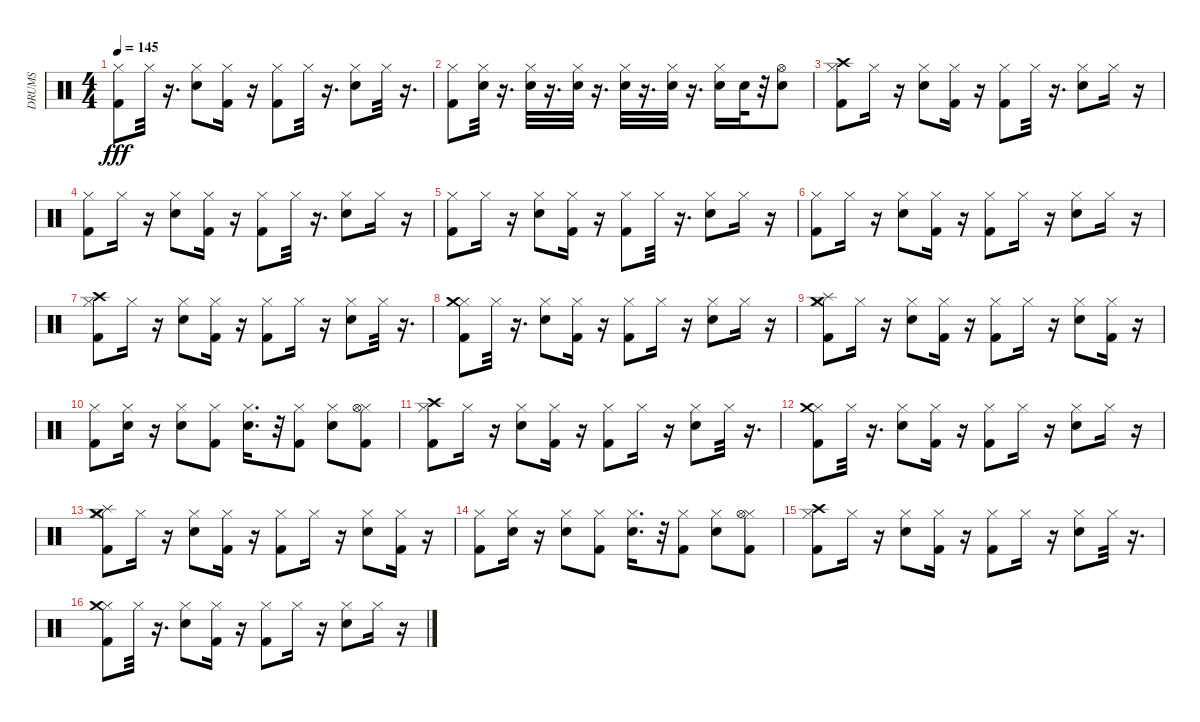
\track ("DRUMS" "DRUMS") {instrument percussion}
\staff {score}
\articulation defaults
\ts (4 4)
\tempo 145
\clef neutral
\ks c
("Kick (hit) 2" "Hi-Hat (closed)").8{dy fff} "Hi-Hat (closed)".32 r.16{d} ("Electric Snare (hit)" "Hi-Hat (closed)").8 ("Kick (hit) 2" "Hi-Hat (closed)").16 r.16 ("Kick (hit) 2" "Hi-Hat (closed)").8 "Hi-Hat (closed)".32 r.16{d} ("Electric Snare (hit)" "Hi-Hat (closed)").8 "Hi-Hat (closed)".32 r.16{d} |
("Kick (hit) 2" "Hi-Hat (closed)").8 ("Electric Snare (hit)" "Hi-Hat (closed)").32 r.16{d} ("Electric Snare (hit)" "Hi-Hat (closed)").32 r.16{d} ("Electric Snare (hit)" "Hi-Hat (closed)").32 r.16{d} ("Electric Snare (hit)" "Hi-Hat (closed)").32 r.16{d} ("Electric Snare (hit)" "Hi-Hat (closed)").32 r.16{d} ("Electric Snare (hit)" "Hi-Hat (closed)").16 "Electric Snare (hit)".32 r.32 ("Electric Snare (hit)" "Hi-Hat (open)").8 |
("Kick (hit) 2" "Hi-Hat (closed)" "Crash high (hit)").8 "Hi-Hat (closed)".16 r.16 ("Electric Snare (hit)" "Hi-Hat (closed)").8 ("Kick (hit) 2" "Hi-Hat (closed)").16 r.16 ("Kick (hit) 2" "Hi-Hat (closed)").8 "Hi-Hat (closed)".32 r.16{d} ("Electric Snare (hit)" "Hi-Hat (closed)").8 "Hi-Hat (closed)".16 r.16 |
("Kick (hit) 2" "Hi-Hat (closed)").8 "Hi-Hat (closed)".16 r.16 ("Electric Snare (hit)" "Hi-Hat (closed)").8 ("Kick (hit) 2" "Hi-Hat (closed)").16 r.16 ("Kick (hit) 2" "Hi-Hat (closed)").8 "Hi-Hat (closed)".32 r.16{d} ("Electric Snare (hit)" "Hi-Hat (closed)").8 "Hi-Hat (closed)".16 r.16 |
("Kick (hit) 2" "Hi-Hat (closed)").8 "Hi-Hat (closed)".16 r.16 ("Electric Snare (hit)" "Hi-Hat (closed)").8 ("Kick (hit) 2" "Hi-Hat (closed)").16 r.16 ("Kick (hit) 2" "Hi-Hat (closed)").8 "Hi-Hat (closed)".32 r.16{d} ("Electric Snare (hit)" "Hi-Hat (closed)").8 "Hi-Hat (closed)".16 r.16 |
("Kick (hit) 2" "Hi-Hat (closed)").8 "Hi-Hat (closed)".16 r.16 ("Electric Snare (hit)" "Hi-Hat (closed)").8 ("Kick (hit) 2" "Hi-Hat (closed)").16 r.16 ("Kick (hit) 2" "Hi-Hat (closed)").8 "Hi-Hat (closed)".16 r.16 ("Electric Snare (hit)" "Hi-Hat (closed)").8 "Hi-Hat (closed)".16 r.16 |
("Kick (hit) 2" "Hi-Hat (closed)" "Crash high (hit)").8 "Hi-Hat (closed)".16 r.16 ("Electric Snare (hit)" "Hi-Hat (closed)").8 ("Kick (hit) 2" "Hi-Hat (closed)").16 r.16 ("Kick (hit) 2" "Hi-Hat (closed)").8 "Hi-Hat (closed)".16 r.16 ("Electric Snare (hit)" "Hi-Hat (closed)").8 "Hi-Hat (closed)".32 r.16{d} |
("Kick (hit) 2" "Hi-Hat (closed)" "Crash medium (hit)").8 "Hi-Hat (closed)".32 r.16{d} ("Electric Snare (hit)" "Hi-Hat (closed)").8 ("Kick (hit) 2" "Hi-Hat (closed)").16 r.16 ("Kick (hit) 2" "Hi-Hat (closed)").8 "Hi-Hat (closed)".16 r.16 ("Electric Snare (hit)" "Hi-Hat (closed)").8 "Hi-Hat (closed)".16 r.16 |
("Kick (hit) 2" "Hi-Hat (closed)" "Splash (hit)" "Crash medium (hit)").8 "Hi-Hat (closed)".16 r.16 ("Electric Snare (hit)" "Hi-Hat (closed)").8 ("Kick (hit) 2" "Hi-Hat (closed)").16 r.16 ("Kick (hit) 2" "Hi-Hat (closed)").8 "Hi-Hat (closed)".16 r.16 ("Electric Snare (hit)" "Hi-Hat (closed)").8 ("Kick (hit) 2" "Hi-Hat (closed)").16 r.16 |
("Kick (hit) 2" "Hi-Hat (closed)").8 ("Electric Snare (hit)" "Hi-Hat (closed)").16 r.16 ("Electric Snare (hit)" "Hi-Hat (closed)").8 ("Kick (hit) 2" "Hi-Hat (closed)").8 ("Electric Snare (hit)" "Hi-Hat (closed)").16{d} r.32 ("Kick (hit) 2" "Hi-Hat (closed)").8 ("Electric Snare (hit)" "Hi-Hat (closed)").8 ("Kick (hit) 2" "Hi-Hat (closed)" "Hi-Hat (open)").8 |
("Kick (hit) 2" "Hi-Hat (closed)" "Crash high (hit)").8 "Hi-Hat (closed)".16 r.16 ("Electric Snare (hit)" "Hi-Hat (closed)").8 ("Kick (hit) 2" "Hi-Hat (closed)").16 r.16 ("Kick (hit) 2" "Hi-Hat (closed)").8 "Hi-Hat (closed)".16 r.16 ("Electric Snare (hit)" "Hi-Hat (closed)").8 "Hi-Hat (closed)".32 r.16{d} |
("Kick (hit) 2" "Hi-Hat (closed)" "Crash medium (hit)").8 "Hi-Hat (closed)".32 r.16{d} ("Electric Snare (hit)" "Hi-Hat (closed)").8 ("Kick (hit) 2" "Hi-Hat (closed)").16 r.16 ("Kick (hit) 2" "Hi-Hat (closed)").8 "Hi-Hat (closed)".16 r.16 ("Electric Snare (hit)" "Hi-Hat (closed)").8 "Hi-Hat (closed)".16 r.16 |
("Kick (hit) 2" "Hi-Hat (closed)" "Splash (hit)" "Crash medium (hit)").8 "Hi-Hat (closed)".16 r.16 ("Electric Snare (hit)" "Hi-Hat (closed)").8 ("Kick (hit) 2" "Hi-Hat (closed)").16 r.16 ("Kick (hit) 2" "Hi-Hat (closed)").8 "Hi-Hat (closed)".16 r.16 ("Electric Snare (hit)" "Hi-Hat (closed)").8 ("Kick (hit) 2" "Hi-Hat (closed)").16 r.16 |
("Kick (hit) 2" "Hi-Hat (closed)").8 ("Electric Snare (hit)" "Hi-Hat (closed)").16 r.16 ("Electric Snare (hit)" "Hi-Hat (closed)").8 ("Kick (hit) 2" "Hi-Hat (closed)").8 ("Electric Snare (hit)" "Hi-Hat (closed)").16{d} r.32 ("Kick (hit) 2" "Hi-Hat (closed)").8 ("Electric Snare (hit)" "Hi-Hat (closed)").8 ("Kick (hit) 2" "Hi-Hat (closed)" "Hi-Hat (open)").8 |
("Kick (hit) 2" "Hi-Hat (closed)" "Crash high (hit)").8 "Hi-Hat (closed)".16 r.16 ("Electric Snare (hit)" "Hi-Hat (closed)").8 ("Kick (hit) 2" "Hi-Hat (closed)").16 r.16 ("Kick (hit) 2" "Hi-Hat (closed)").8 "Hi-Hat (closed)".16 r.16 ("Electric Snare (hit)" "Hi-Hat (closed)").8 "Hi-Hat (closed)".32 r.16{d} |
("Kick (hit) 2" "Hi-Hat (closed)" "Crash medium (hit)").8 "Hi-Hat (closed)".32 r.16{d} ("Electric Snare (hit)" "Hi-Hat (closed)").8 ("Kick (hit) 2" "Hi-Hat (closed)").16 r.16 ("Kick (hit) 2" "Hi-Hat (closed)").8 "Hi-Hat (closed)".16 r.16 ("Electric Snare (hit)" "Hi-Hat (closed)").8 "Hi-Hat (closed)".16 r.16
